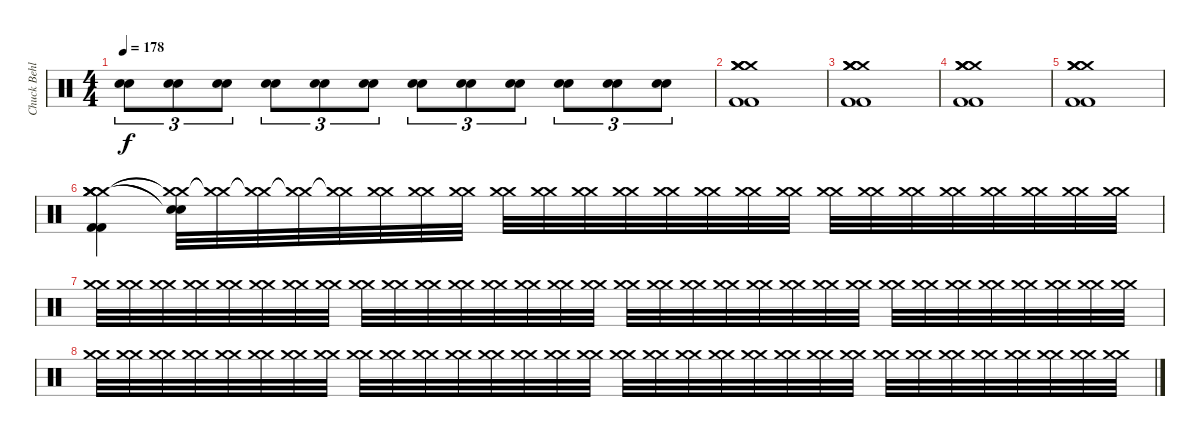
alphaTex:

\track ("Chuck Behler" "Chuck Behl") {instrument percussion}
\staff {score}
\articulation defaults
\ts (4 4)
\tempo 178
\clef neutral
\ks c
("Electric Snare (hit)" "Snare (hit) 2").8{tu (3 2) dy f} ("Electric Snare (hit)" "Snare (hit) 2").8{tu (3 2)} ("Electric Snare (hit)" "Snare (hit) 2").8{tu (3 2)} ("Electric Snare (hit)" "Snare (hit) 2").8{tu (3 2)} ("Electric Snare (hit)" "Snare (hit) 2").8{tu (3 2)} ("Electric Snare (hit)" "Snare (hit) 2").8{tu (3 2)} ("Electric Snare (hit)" "Snare (hit) 2").8{tu (3 2)} ("Electric Snare (hit)" "Snare (hit) 2").8{tu (3 2)} ("Electric Snare (hit)" "Snare (hit) 2").8{tu (3 2)} ("Electric Snare (hit)" "Snare (hit) 2").8{tu (3 2)} ("Electric Snare (hit)" "Snare (hit) 2").8{tu (3 2)} ("Electric Snare (hit)" "Snare (hit) 2").8{tu (3 2)} |
("Crash medium (hit)" "Crash medium (hit)" "Crash medium (hit)" "Crash medium (hit)" "Kick (hit) 2" "Kick (hit) 2").1 |
("Crash medium (hit)" "Crash medium (hit)" "Crash medium (hit)" "Crash medium (hit)" "Kick (hit) 2" "Kick (hit) 2").1 |
("Crash medium (hit)" "Crash medium (hit)" "Crash medium (hit)" "Crash medium (hit)" "Kick (hit) 2" "Kick (hit) 2").1 |
("Crash medium (hit)" "Crash medium (hit)" "Crash medium (hit)" "Crash medium (hit)" "Kick (hit) 2" "Kick (hit) 2").1 |
("Crash medium (hit)" "Crash medium (hit)" "Crash medium (hit)" "Crash medium (hit)" "Kick (hit) 2" "Kick (hit) 2").4 ("Crash medium (hit)"{t} "Crash medium (hit)"{t} "Snare (hit)"{t} "Snare (hit)"{t}).32 ("Crash medium (hit)"{t} "Crash medium (hit)"{t}).32 ("Crash medium (hit)"{t} "Crash medium (hit)"{t}).32 ("Crash medium (hit)"{t} "Crash medium (hit)"{t}).32 ("Crash medium (hit)"{t} "Crash medium (hit)"{t}).32{volume 4} ("Crash medium (hit)" "Crash medium (hit)").32{volume 13} ("Crash medium (hit)" "Crash medium (hit)").32 ("Crash medium (hit)" "Crash medium (hit)").32 ("Crash medium (hit)" "Crash medium (hit)").32 ("Crash medium (hit)" "Crash medium (hit)").32 ("Crash medium (hit)" "Crash medium (hit)").32 ("Crash medium (hit)" "Crash medium (hit)").32 ("Crash medium (hit)" "Crash medium (hit)").32 ("Crash medium (hit)" "Crash medium (hit)").32 ("Crash medium (hit)" "Crash medium (hit)").32 ("Crash medium (hit)" "Crash medium (hit)").32 ("Crash medium (hit)" "Crash medium (hit)").32 ("Crash medium (hit)" "Crash medium (hit)").32 ("Crash medium (hit)" "Crash medium (hit)").32 ("Crash medium (hit)" "Crash medium (hit)").32 ("Crash medium (hit)" "Crash medium (hit)").32 ("Crash medium (hit)" "Crash medium (hit)").32 ("Crash medium (hit)" "Crash medium (hit)").32 ("Crash medium (hit)" "Crash medium (hit)").32 |
("Crash medium (hit)" "Crash medium (hit)").32 ("Crash medium (hit)" "Crash medium (hit)").32 ("Crash medium (hit)" "Crash medium (hit)").32 ("Crash medium (hit)" "Crash medium (hit)").32 ("Crash medium (hit)" "Crash medium (hit)").32 ("Crash medium (hit)" "Crash medium (hit)").32 ("Crash medium (hit)" "Crash medium (hit)").32 ("Crash medium (hit)" "Crash medium (hit)").32 ("Crash medium (hit)" "Crash medium (hit)").32 ("Crash medium (hit)" "Crash medium (hit)").32 ("Crash medium (hit)" "Crash medium (hit)").32 ("Crash medium (hit)" "Crash medium (hit)").32 ("Crash medium (hit)" "Crash medium (hit)").32 ("Crash medium (hit)" "Crash medium (hit)").32 ("Crash medium (hit)" "Crash medium (hit)").32 ("Crash medium (hit)" "Crash medium (hit)").32 ("Crash medium (hit)" "Crash medium (hit)").32 ("Crash medium (hit)" "Crash medium (hit)").32 ("Crash medium (hit)" "Crash medium (hit)").32{volume 8} ("Crash medium (hit)" "Crash medium (hit)").32 ("Crash medium (hit)" "Crash medium (hit)").32 ("Crash medium (hit)" "Crash medium (hit)").32 ("Crash medium (hit)" "Crash medium (hit)").32 ("Crash medium (hit)" "Crash medium (hit)").32 ("Crash medium (hit)" "Crash medium (hit)").32 ("Crash medium (hit)" "Crash medium (hit)").32 ("Crash medium (hit)" "Crash medium (hit)").32 ("Crash medium (hit)" "Crash medium (hit)").32 ("Crash medium (hit)" "Crash medium (hit)").32 ("Crash medium (hit)" "Crash medium (hit)").32 ("Crash medium (hit)" "Crash medium (hit)").32 ("Crash medium (hit)" "Crash medium (hit)").32 |
("Crash medium (hit)" "Crash medium (hit)").32 ("Crash medium (hit)" "Crash medium (hit)").32 ("Crash medium (hit)" "Crash medium (hit)").32 ("Crash medium (hit)" "Crash medium (hit)").32 ("Crash medium (hit)" "Crash medium (hit)").32 ("Crash medium (hit)" "Crash medium (hit)").32 ("Crash medium (hit)" "Crash medium (hit)").32 ("Crash medium (hit)" "Crash medium (hit)").32 ("Crash medium (hit)" "Crash medium (hit)").32 ("Crash medium (hit)" "Crash medium (hit)").32 ("Crash medium (hit)" "Crash medium (hit)").32 ("Crash medium (hit)" "Crash medium (hit)").32 ("Crash medium (hit)" "Crash medium (hit)").32 ("Crash medium (hit)" "Crash medium (hit)").32 ("Crash medium (hit)" "Crash medium (hit)").32 ("Crash medium (hit)" "Crash medium (hit)").32 ("Crash medium (hit)" "Crash medium (hit)").32 ("Crash medium (hit)" "Crash medium (hit)").32 ("Crash medium (hit)" "Crash medium (hit)").32 ("Crash medium (hit)" "Crash medium (hit)").32 ("Crash medium (hit)" "Crash medium (hit)").32 ("Crash medium (hit)" "Crash medium (hit)").32 ("Crash medium (hit)" "Crash medium (hit)").32 ("Crash medium (hit)" "Crash medium (hit)").32 ("Crash medium (hit)" "Crash medium (hit)").32 ("Crash medium (hit)" "Crash medium (hit)").32 ("Crash medium (hit)" "Crash medium (hit)").32 ("Crash medium (hit)" "Crash medium (hit)").32 ("Crash medium (hit)" "Crash medium (hit)").32 ("Crash medium (hit)" "Crash medium (hit)").32 ("Crash medium (hit)" "Crash medium (hit)").32 ("Crash medium (hit)" "Crash medium (hit)").32
